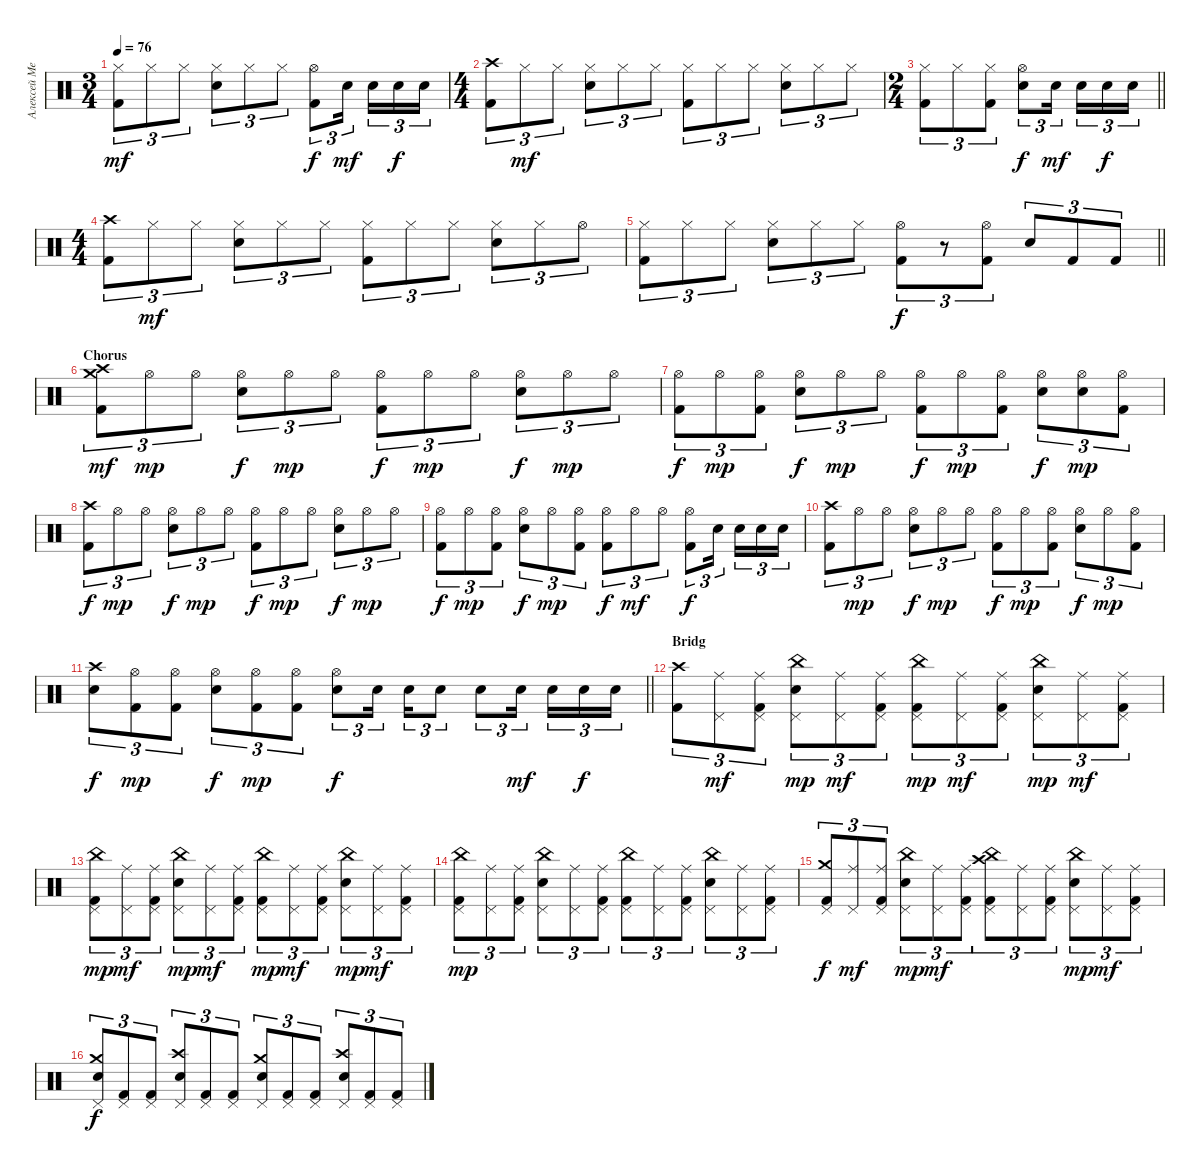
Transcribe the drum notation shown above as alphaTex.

\track ("Алексей Мещеряков" "Алексей Ме") {instrument percussion}
\staff {score}
\articulation defaults
\ts (3 4)
\tempo 76
\clef neutral
\ks c
("Hi-Hat (closed)" "Kick (hit) 2").8{tu (3 2) dy mf} "Hi-Hat (closed)".8{tu (3 2)} "Hi-Hat (closed)".8{tu (3 2)} ("Hi-Hat (closed)" "Electric Snare (hit)").8{tu (3 2)} "Hi-Hat (closed)".8{tu (3 2)} "Hi-Hat (closed)".8{tu (3 2)} ("Hi-Hat (open)" "Kick (hit) 2").8{tu (3 2) dy f} "Electric Snare (hit)".16{tu (3 2) dy mf beam splitsecondary} "Electric Snare (hit)".16{tu (3 2)} "Electric Snare (hit)".16{tu (3 2) dy f} "Electric Snare (hit)".16{tu (3 2)} |
\ts (4 4)
("Crash high (hit)" "Kick (hit) 2").8{tu (3 2)} "Hi-Hat (closed)".8{tu (3 2) dy mf} "Hi-Hat (closed)".8{tu (3 2)} ("Hi-Hat (closed)" "Electric Snare (hit)").8{tu (3 2)} "Hi-Hat (closed)".8{tu (3 2)} "Hi-Hat (closed)".8{tu (3 2)} ("Hi-Hat (closed)" "Kick (hit) 2").8{tu (3 2)} "Hi-Hat (closed)".8{tu (3 2)} "Hi-Hat (closed)".8{tu (3 2)} ("Hi-Hat (closed)" "Electric Snare (hit)").8{tu (3 2)} "Hi-Hat (closed)".8{tu (3 2)} "Hi-Hat (closed)".8{tu (3 2)} |
\ts (2 4)
\barLineRight lightlight
("Hi-Hat (closed)" "Kick (hit) 2").8{tu (3 2)} "Hi-Hat (closed)".8{tu (3 2)} ("Hi-Hat (closed)" "Kick (hit) 2").8{tu (3 2)} ("Hi-Hat (open)" "Electric Snare (hit)").8{tu (3 2) dy f} "Electric Snare (hit)".16{tu (3 2) dy mf beam splitsecondary} "Electric Snare (hit)".16{tu (3 2)} "Electric Snare (hit)".16{tu (3 2) dy f} "Electric Snare (hit)".16{tu (3 2)} |
\ts (4 4)
("Crash high (hit)" "Kick (hit) 2").8{tu (3 2)} "Hi-Hat (closed)".8{tu (3 2) dy mf} "Hi-Hat (closed)".8{tu (3 2)} ("Hi-Hat (closed)" "Electric Snare (hit)").8{tu (3 2)} "Hi-Hat (closed)".8{tu (3 2)} "Hi-Hat (closed)".8{tu (3 2)} ("Hi-Hat (closed)" "Kick (hit) 2").8{tu (3 2)} "Hi-Hat (closed)".8{tu (3 2)} "Hi-Hat (closed)".8{tu (3 2)} ("Hi-Hat (closed)" "Electric Snare (hit)").8{tu (3 2)} "Hi-Hat (closed)".8{tu (3 2)} "Hi-Hat (open)".8{tu (3 2)} |
\barLineRight lightlight
("Hi-Hat (closed)" "Kick (hit) 2").8{tu (3 2)} "Hi-Hat (closed)".8{tu (3 2)} "Hi-Hat (closed)".8{tu (3 2)} ("Hi-Hat (closed)" "Electric Snare (hit)").8{tu (3 2)} "Hi-Hat (closed)".8{tu (3 2)} "Hi-Hat (closed)".8{tu (3 2)} ("Hi-Hat (open)" "Kick (hit) 2").8{tu (3 2) dy f} r.8{tu (3 2)} ("Hi-Hat (open)" "Kick (hit) 2").8{tu (3 2)} "Electric Snare (hit)".8{tu (3 2)} "Kick (hit) 2".8{tu (3 2)} "Kick (hit) 2".8{tu (3 2)} |
\section ("" "Chorus")
("Crash high (hit)" "Crash medium (hit)" "Kick (hit) 2").8{tu (3 2) dy mf} "Hi-Hat (open)".8{tu (3 2) dy mp} "Hi-Hat (open)".8{tu (3 2)} ("Hi-Hat (open)" "Electric Snare (hit)").8{tu (3 2) dy f} "Hi-Hat (open)".8{tu (3 2) dy mp} "Hi-Hat (open)".8{tu (3 2)} ("Hi-Hat (open)" "Kick (hit) 2").8{tu (3 2) dy f} "Hi-Hat (open)".8{tu (3 2) dy mp} "Hi-Hat (open)".8{tu (3 2)} ("Hi-Hat (open)" "Electric Snare (hit)").8{tu (3 2) dy f} "Hi-Hat (open)".8{tu (3 2) dy mp} "Hi-Hat (open)".8{tu (3 2)} |
("Hi-Hat (open)" "Kick (hit) 2").8{tu (3 2) dy f} "Hi-Hat (open)".8{tu (3 2) dy mp} ("Hi-Hat (open)" "Kick (hit) 2").8{tu (3 2)} ("Hi-Hat (open)" "Electric Snare (hit)").8{tu (3 2) dy f} "Hi-Hat (open)".8{tu (3 2) dy mp} "Hi-Hat (open)".8{tu (3 2)} ("Hi-Hat (open)" "Kick (hit) 2").8{tu (3 2) dy f} "Hi-Hat (open)".8{tu (3 2) dy mp} ("Hi-Hat (open)" "Kick (hit) 2").8{tu (3 2)} ("Hi-Hat (open)" "Electric Snare (hit)").8{tu (3 2) dy f} ("Hi-Hat (open)" "Electric Snare (hit)").8{tu (3 2) dy mp} ("Hi-Hat (open)" "Kick (hit) 2").8{tu (3 2)} |
("Crash high (hit)" "Kick (hit) 2").8{tu (3 2) dy f} "Hi-Hat (open)".8{tu (3 2) dy mp} "Hi-Hat (open)".8{tu (3 2)} ("Hi-Hat (open)" "Electric Snare (hit)").8{tu (3 2) dy f} "Hi-Hat (open)".8{tu (3 2) dy mp} "Hi-Hat (open)".8{tu (3 2)} ("Hi-Hat (open)" "Kick (hit) 2").8{tu (3 2) dy f} "Hi-Hat (open)".8{tu (3 2) dy mp} "Hi-Hat (open)".8{tu (3 2)} ("Hi-Hat (open)" "Electric Snare (hit)").8{tu (3 2) dy f} "Hi-Hat (open)".8{tu (3 2) dy mp} "Hi-Hat (open)".8{tu (3 2)} |
("Hi-Hat (open)" "Kick (hit) 2").8{tu (3 2) dy f} "Hi-Hat (open)".8{tu (3 2) dy mp} ("Hi-Hat (open)" "Kick (hit) 2").8{tu (3 2)} ("Hi-Hat (open)" "Electric Snare (hit)").8{tu (3 2) dy f} "Hi-Hat (open)".8{tu (3 2) dy mp} ("Hi-Hat (open)" "Kick (hit) 2").8{tu (3 2)} ("Hi-Hat (open)" "Kick (hit) 2").8{tu (3 2) dy f} "Hi-Hat (open)".8{tu (3 2) dy mf} "Hi-Hat (open)".8{tu (3 2)} ("Hi-Hat (open)" "Kick (hit) 2").8{tu (3 2) dy f} "Electric Snare (hit)".16{tu (3 2) beam splitsecondary} "Electric Snare (hit)".16{tu (3 2)} "Electric Snare (hit)".16{tu (3 2)} "Electric Snare (hit)".16{tu (3 2)} |
("Crash high (hit)" "Kick (hit) 2").8{tu (3 2)} "Hi-Hat (open)".8{tu (3 2) dy mp} "Hi-Hat (open)".8{tu (3 2)} ("Hi-Hat (open)" "Electric Snare (hit)").8{tu (3 2) dy f} "Hi-Hat (open)".8{tu (3 2) dy mp} "Hi-Hat (open)".8{tu (3 2)} ("Hi-Hat (open)" "Kick (hit) 2").8{tu (3 2) dy f} "Hi-Hat (open)".8{tu (3 2) dy mp} ("Hi-Hat (open)" "Kick (hit) 2").8{tu (3 2)} ("Hi-Hat (open)" "Electric Snare (hit)").8{tu (3 2) dy f} "Hi-Hat (open)".8{tu (3 2) dy mp} ("Hi-Hat (open)" "Kick (hit) 2").8{tu (3 2)} |
\barLineRight lightlight
("Crash high (hit)" "Electric Snare (hit)").8{tu (3 2) dy f} ("Hi-Hat (open)" "Kick (hit) 2").8{tu (3 2) dy mp} ("Hi-Hat (open)" "Kick (hit) 2").8{tu (3 2)} ("Hi-Hat (open)" "Electric Snare (hit)").8{tu (3 2) dy f} ("Hi-Hat (open)" "Kick (hit) 2").8{tu (3 2) dy mp} ("Hi-Hat (open)" "Kick (hit) 2").8{tu (3 2)} ("Hi-Hat (open)" "Electric Snare (hit)").8{tu (3 2) dy f} "Electric Snare (hit)".16{tu (3 2) beam splitsecondary} "Electric Snare (hit)".16{tu (3 2)} "Electric Snare (hit)".8{tu (3 2)} "Electric Snare (hit)".8{tu (3 2)} "Electric Snare (hit)".16{tu (3 2) dy mf beam splitsecondary} "Electric Snare (hit)".16{tu (3 2)} "Electric Snare (hit)".16{tu (3 2) dy f} "Electric Snare (hit)".16{tu (3 2)} |
\section ("" "Bridg")
("Crash high (hit)" "Kick (hit) 2").8{tu (3 2)} ("Ride (middle)" "Pedal Hi-Hat (hit)").8{tu (3 2) dy mf} ("Ride (middle)" "Pedal Hi-Hat (hit)" "Kick (hit) 2").8{tu (3 2)} ("China (hit)" "Pedal Hi-Hat (hit)" "Electric Snare (hit)").8{tu (3 2) dy mp} ("Ride (middle)" "Pedal Hi-Hat (hit)").8{tu (3 2) dy mf} ("Ride (middle)" "Pedal Hi-Hat (hit)" "Kick (hit) 2").8{tu (3 2)} ("China (hit)" "Pedal Hi-Hat (hit)" "Kick (hit) 2").8{tu (3 2) dy mp} ("Ride (middle)" "Pedal Hi-Hat (hit)").8{tu (3 2) dy mf} ("Ride (middle)" "Pedal Hi-Hat (hit)" "Kick (hit) 2").8{tu (3 2)} ("China (hit)" "Pedal Hi-Hat (hit)" "Electric Snare (hit)").8{tu (3 2) dy mp} ("Ride (middle)" "Pedal Hi-Hat (hit)").8{tu (3 2) dy mf} ("Ride (middle)" "Pedal Hi-Hat (hit)" "Kick (hit) 2").8{tu (3 2)} |
("China (hit)" "Pedal Hi-Hat (hit)" "Kick (hit) 2").8{tu (3 2) dy mp} ("Ride (middle)" "Pedal Hi-Hat (hit)").8{tu (3 2) dy mf} ("Ride (middle)" "Pedal Hi-Hat (hit)" "Kick (hit) 2").8{tu (3 2)} ("China (hit)" "Pedal Hi-Hat (hit)" "Electric Snare (hit)").8{tu (3 2) dy mp} ("Ride (middle)" "Pedal Hi-Hat (hit)").8{tu (3 2) dy mf} ("Ride (middle)" "Pedal Hi-Hat (hit)" "Kick (hit) 2").8{tu (3 2)} ("China (hit)" "Pedal Hi-Hat (hit)" "Kick (hit) 2").8{tu (3 2) dy mp} ("Ride (middle)" "Pedal Hi-Hat (hit)").8{tu (3 2) dy mf} ("Ride (middle)" "Pedal Hi-Hat (hit)" "Kick (hit) 2").8{tu (3 2)} ("China (hit)" "Pedal Hi-Hat (hit)" "Electric Snare (hit)").8{tu (3 2) dy mp} ("Ride (middle)" "Pedal Hi-Hat (hit)").8{tu (3 2) dy mf} ("Ride (middle)" "Pedal Hi-Hat (hit)" "Kick (hit) 2").8{tu (3 2)} |
("China (hit)" "Pedal Hi-Hat (hit)" "Kick (hit) 2").8{tu (3 2) dy mp} ("Ride (middle)" "Pedal Hi-Hat (hit)").8{tu (3 2)} ("Ride (middle)" "Pedal Hi-Hat (hit)" "Kick (hit) 2").8{tu (3 2)} ("China (hit)" "Pedal Hi-Hat (hit)" "Electric Snare (hit)").8{tu (3 2)} ("Ride (middle)" "Pedal Hi-Hat (hit)").8{tu (3 2)} ("Ride (middle)" "Pedal Hi-Hat (hit)" "Kick (hit) 2").8{tu (3 2)} ("China (hit)" "Pedal Hi-Hat (hit)" "Kick (hit) 2").8{tu (3 2)} ("Ride (middle)" "Pedal Hi-Hat (hit)").8{tu (3 2)} ("Ride (middle)" "Pedal Hi-Hat (hit)" "Kick (hit) 2").8{tu (3 2)} ("China (hit)" "Pedal Hi-Hat (hit)" "Electric Snare (hit)").8{tu (3 2)} ("Ride (middle)" "Pedal Hi-Hat (hit)").8{tu (3 2)} ("Ride (middle)" "Pedal Hi-Hat (hit)" "Kick (hit) 2").8{tu (3 2)} |
("Crash medium (hit)" "Pedal Hi-Hat (hit)" "Kick (hit) 2").8{tu (3 2) dy f} ("Ride (middle)" "Pedal Hi-Hat (hit)").8{tu (3 2) dy mf} ("Ride (middle)" "Pedal Hi-Hat (hit)" "Kick (hit) 2").8{tu (3 2)} ("China (hit)" "Pedal Hi-Hat (hit)" "Electric Snare (hit)").8{tu (3 2) dy mp} ("Ride (middle)" "Pedal Hi-Hat (hit)").8{tu (3 2) dy mf} ("Ride (middle)" "Pedal Hi-Hat (hit)" "Kick (hit) 2").8{tu (3 2)} ("China (hit)" "Crash high (hit)" "Pedal Hi-Hat (hit)" "Kick (hit) 2").8{tu (3 2)} ("Ride (middle)" "Pedal Hi-Hat (hit)").8{tu (3 2)} ("Ride (middle)" "Pedal Hi-Hat (hit)" "Kick (hit) 2").8{tu (3 2)} ("China (hit)" "Pedal Hi-Hat (hit)" "Electric Snare (hit)").8{tu (3 2) dy mp} ("Ride (middle)" "Pedal Hi-Hat (hit)").8{tu (3 2) dy mf} ("Ride (middle)" "Pedal Hi-Hat (hit)" "Kick (hit) 2").8{tu (3 2)} |
("Crash medium (hit)" "Pedal Hi-Hat (hit)" "Electric Snare (hit)").8{tu (3 2) dy f} ("Pedal Hi-Hat (hit)" "Kick (hit) 2").8{tu (3 2)} ("Pedal Hi-Hat (hit)" "Kick (hit) 2").8{tu (3 2)} ("Crash high (hit)" "Pedal Hi-Hat (hit)" "Electric Snare (hit)").8{tu (3 2)} ("Pedal Hi-Hat (hit)" "Kick (hit) 2").8{tu (3 2)} ("Pedal Hi-Hat (hit)" "Kick (hit) 2").8{tu (3 2)} ("Crash medium (hit)" "Pedal Hi-Hat (hit)" "Electric Snare (hit)").8{tu (3 2)} ("Pedal Hi-Hat (hit)" "Kick (hit) 2").8{tu (3 2)} ("Pedal Hi-Hat (hit)" "Kick (hit) 2").8{tu (3 2)} ("Crash high (hit)" "Pedal Hi-Hat (hit)" "Electric Snare (hit)").8{tu (3 2)} ("Pedal Hi-Hat (hit)" "Kick (hit) 2").8{tu (3 2)} ("Pedal Hi-Hat (hit)" "Kick (hit) 2").8{tu (3 2)}
